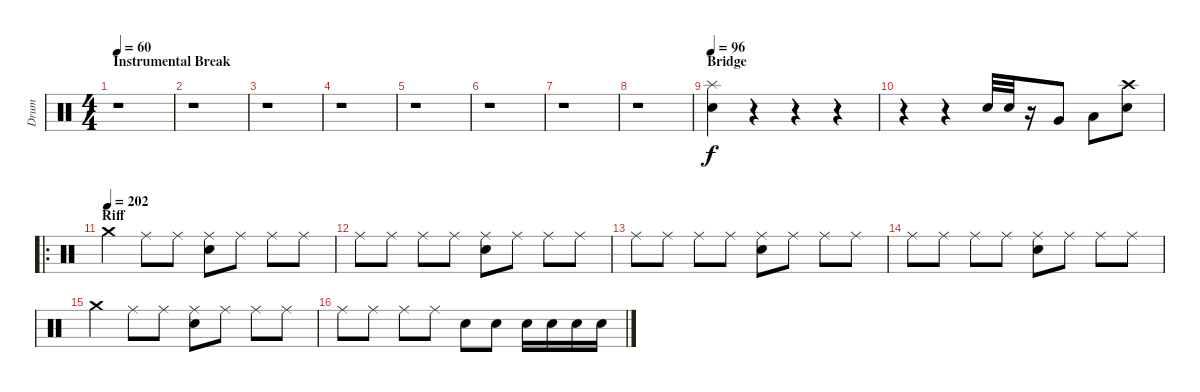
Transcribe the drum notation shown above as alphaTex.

\track ("Drum" "Drum") {instrument percussion}
\staff {score}
\articulation defaults
\ts (4 4)
\section ("" "Instrumental Break")
\tempo 60
\clef neutral
\ks c
r.1{dy f} |
r.1 |
r.1 |
r.1 |
r.1 |
r.1 |
r.1 |
r.1 |
\section ("" "Bridge")
\tempo 96
("Splash (hit)" "Electric Snare (hit)").4 r.4 r.4 r.4 |
r.4 r.4 "Electric Snare (hit)".32 "Electric Snare (hit)".32 r.16 "Very Low Tom (hit)".8 "Low Floor Tom (hit)".8 ("Crash high (hit)" "Electric Snare (hit)").8 |
\ro
\section ("" "Riff")
\tempo (202)
"Crash medium (hit)".4 "Ride (middle)".8 "Ride (middle)".8 ("Ride (middle)" "Electric Snare (hit)").8 "Ride (middle)".8 "Ride (middle)".8 "Ride (middle)".8 |
"Ride (middle)".8 "Ride (middle)".8 "Ride (middle)".8 "Ride (middle)".8 ("Ride (middle)" "Electric Snare (hit)").8 "Ride (middle)".8 "Ride (middle)".8 "Ride (middle)".8 |
"Ride (middle)".8 "Ride (middle)".8 "Ride (middle)".8 "Ride (middle)".8 ("Ride (middle)" "Electric Snare (hit)").8 "Ride (middle)".8 "Ride (middle)".8 "Ride (middle)".8 |
"Ride (middle)".8 "Ride (middle)".8 "Ride (middle)".8 "Ride (middle)".8 ("Ride (middle)" "Electric Snare (hit)").8 "Ride (middle)".8 "Ride (middle)".8 "Ride (middle)".8 |
"Crash medium (hit)".4 "Ride (middle)".8 "Ride (middle)".8 ("Ride (middle)" "Electric Snare (hit)").8 "Ride (middle)".8 "Ride (middle)".8 "Ride (middle)".8 |
"Ride (middle)".8 "Ride (middle)".8 "Ride (middle)".8 "Ride (middle)".8 "Electric Snare (hit)".8 "Electric Snare (hit)".8 "Electric Snare (hit)".16 "Electric Snare (hit)".16 "Electric Snare (hit)".16 "Electric Snare (hit)".16
